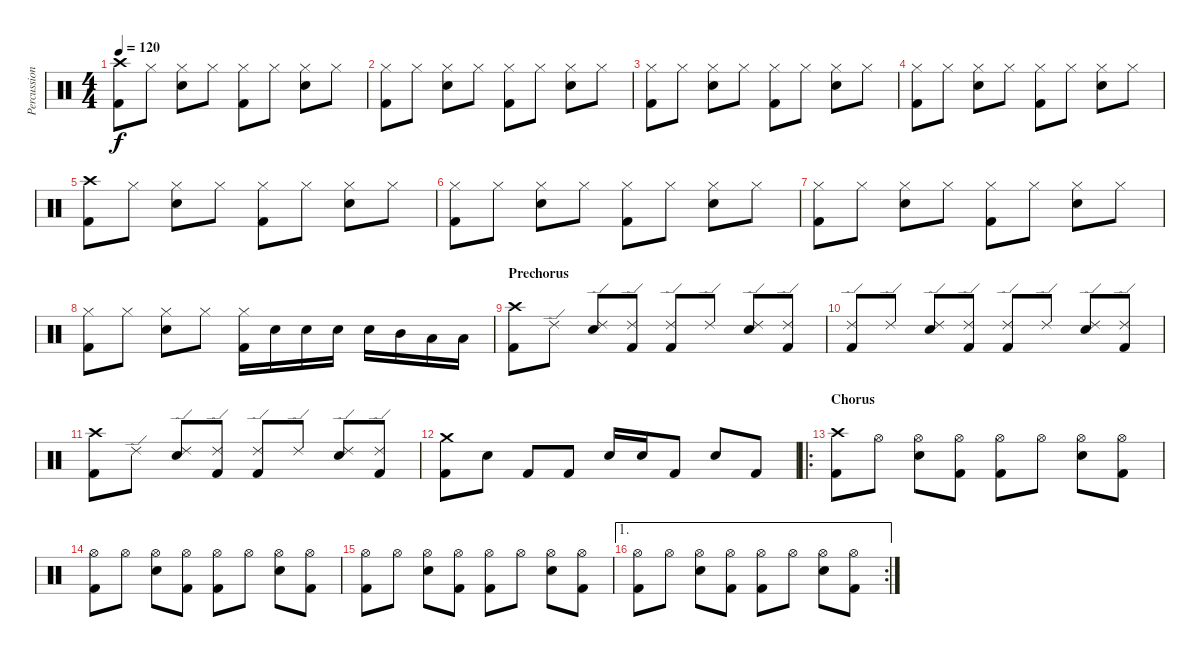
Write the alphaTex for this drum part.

\track ("Percussion" "Percussion") {instrument percussion}
\staff {score}
\articulation defaults
\ts (4 4)
\tempo 120
\clef neutral
\ks c
("Crash high (hit)" "Kick (hit) 2").8{dy f} "Hi-Hat (closed)".8 ("Hi-Hat (closed)" "Snare (hit) 2").8 "Hi-Hat (closed)".8 ("Hi-Hat (closed)" "Kick (hit) 2").8 "Hi-Hat (closed)".8 ("Hi-Hat (closed)" "Snare (hit) 2").8 "Hi-Hat (closed)".8 |
("Hi-Hat (closed)" "Kick (hit) 2").8 "Hi-Hat (closed)".8 ("Hi-Hat (closed)" "Snare (hit) 2").8 "Hi-Hat (closed)".8 ("Hi-Hat (closed)" "Kick (hit) 2").8 "Hi-Hat (closed)".8 ("Hi-Hat (closed)" "Snare (hit) 2").8 "Hi-Hat (closed)".8 |
("Hi-Hat (closed)" "Kick (hit) 2").8 "Hi-Hat (closed)".8 ("Hi-Hat (closed)" "Snare (hit) 2").8 "Hi-Hat (closed)".8 ("Hi-Hat (closed)" "Kick (hit) 2").8 "Hi-Hat (closed)".8 ("Hi-Hat (closed)" "Snare (hit) 2").8 "Hi-Hat (closed)".8 |
("Hi-Hat (closed)" "Kick (hit) 2").8 "Hi-Hat (closed)".8 ("Hi-Hat (closed)" "Snare (hit) 2").8 "Hi-Hat (closed)".8 ("Hi-Hat (closed)" "Kick (hit) 2").8 "Hi-Hat (closed)".8 ("Hi-Hat (closed)" "Snare (hit) 2").8 "Hi-Hat (closed)".8 |
("Crash high (hit)" "Kick (hit) 2").8 "Hi-Hat (closed)".8 ("Hi-Hat (closed)" "Snare (hit) 2").8 "Hi-Hat (closed)".8 ("Hi-Hat (closed)" "Kick (hit) 2").8 "Hi-Hat (closed)".8 ("Hi-Hat (closed)" "Snare (hit) 2").8 "Hi-Hat (closed)".8 |
("Hi-Hat (closed)" "Kick (hit) 2").8 "Hi-Hat (closed)".8 ("Hi-Hat (closed)" "Snare (hit) 2").8 "Hi-Hat (closed)".8 ("Hi-Hat (closed)" "Kick (hit) 2").8 "Hi-Hat (closed)".8 ("Hi-Hat (closed)" "Snare (hit) 2").8 "Hi-Hat (closed)".8 |
("Hi-Hat (closed)" "Kick (hit) 2").8 "Hi-Hat (closed)".8 ("Hi-Hat (closed)" "Snare (hit) 2").8 "Hi-Hat (closed)".8 ("Hi-Hat (closed)" "Kick (hit) 2").8 "Hi-Hat (closed)".8 ("Hi-Hat (closed)" "Snare (hit) 2").8 "Hi-Hat (closed)".8 |
("Hi-Hat (closed)" "Kick (hit) 2").8 "Hi-Hat (closed)".8 ("Hi-Hat (closed)" "Snare (hit) 2").8 "Hi-Hat (closed)".8 ("Hi-Hat (closed)" "Kick (hit) 2").16 "Snare (hit) 2".16 "Snare (hit) 2".16 "Snare (hit) 2".16 "Snare (hit) 2".16 "Mid Tom (hit)".16 "Low Tom (hit)".16 "Low Tom (hit)".16 |
\section ("" "Prechorus")
("Crash high (hit)" "Kick (hit) 2").8 "Ride (edge) 2".8 ("Ride (edge) 2" "Snare (hit) 2").8 ("Ride (edge) 2" "Kick (hit) 2").8 ("Ride (edge) 2" "Kick (hit) 2").8 "Ride (edge) 2".8 ("Ride (edge) 2" "Snare (hit) 2").8 ("Ride (edge) 2" "Kick (hit) 2").8 |
("Ride (edge) 2" "Kick (hit) 2").8 "Ride (edge) 2".8 ("Ride (edge) 2" "Snare (hit) 2").8 ("Ride (edge) 2" "Kick (hit) 2").8 ("Ride (edge) 2" "Kick (hit) 2").8 "Ride (edge) 2".8 ("Ride (edge) 2" "Snare (hit) 2").8 ("Ride (edge) 2" "Kick (hit) 2").8 |
("Crash high (hit)" "Kick (hit) 2").8 "Ride (edge) 2".8 ("Ride (edge) 2" "Snare (hit) 2").8 ("Ride (edge) 2" "Kick (hit) 2").8 ("Ride (edge) 2" "Kick (hit) 2").8 "Ride (edge) 2".8 ("Ride (edge) 2" "Snare (hit) 2").8 ("Ride (edge) 2" "Kick (hit) 2").8 |
("Crash medium (hit)" "Kick (hit) 2").8 "Snare (hit) 2".8 "Kick (hit) 2".8 "Kick (hit) 2".8 "Snare (hit) 2".16 "Snare (hit) 2".16 "Kick (hit) 2".8 "Snare (hit) 2".8 "Kick (hit) 2".8 |
\ro
\section ("" "Chorus")
("Crash high (hit)" "Kick (hit) 2").8 "Hi-Hat (open)".8 ("Hi-Hat (open)" "Snare (hit) 2").8 ("Hi-Hat (open)" "Kick (hit) 2").8 ("Hi-Hat (open)" "Kick (hit) 2").8 "Hi-Hat (open)".8 ("Hi-Hat (open)" "Snare (hit) 2").8 ("Hi-Hat (open)" "Kick (hit) 2").8 |
("Hi-Hat (open)" "Kick (hit) 2").8 "Hi-Hat (open)".8 ("Hi-Hat (open)" "Snare (hit) 2").8 ("Hi-Hat (open)" "Kick (hit) 2").8 ("Hi-Hat (open)" "Kick (hit) 2").8 "Hi-Hat (open)".8 ("Hi-Hat (open)" "Snare (hit) 2").8 ("Hi-Hat (open)" "Kick (hit) 2").8 |
("Hi-Hat (open)" "Kick (hit) 2").8 "Hi-Hat (open)".8 ("Hi-Hat (open)" "Snare (hit) 2").8 ("Hi-Hat (open)" "Kick (hit) 2").8 ("Hi-Hat (open)" "Kick (hit) 2").8 "Hi-Hat (open)".8 ("Hi-Hat (open)" "Snare (hit) 2").8 ("Hi-Hat (open)" "Kick (hit) 2").8 |
\ae 1
\rc 2
("Hi-Hat (open)" "Kick (hit) 2").8 "Hi-Hat (open)".8 ("Hi-Hat (open)" "Snare (hit) 2").8 ("Hi-Hat (open)" "Kick (hit) 2").8 ("Hi-Hat (open)" "Kick (hit) 2").8 "Hi-Hat (open)".8 ("Hi-Hat (open)" "Snare (hit) 2").8 ("Hi-Hat (open)" "Kick (hit) 2").8
